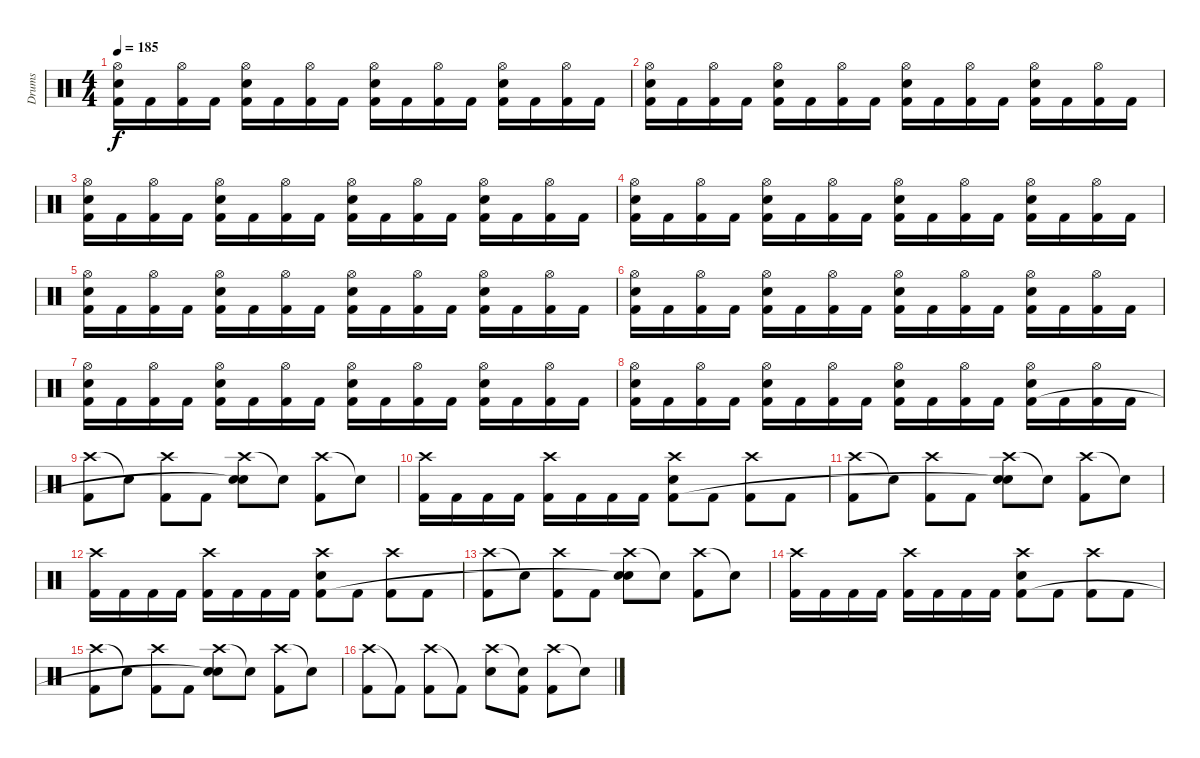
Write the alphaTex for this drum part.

\track ("Drums" "Drums") {instrument percussion}
\staff {score}
\articulation defaults
\ts (4 4)
\tempo 185
\clef neutral
\ks c
("Hi-Hat (open)" "Electric Snare (hit)" "Kick (hit) 2").16{dy f} "Kick (hit) 2".16 ("Hi-Hat (open)" "Kick (hit) 2").16 "Kick (hit) 2".16 ("Hi-Hat (open)" "Electric Snare (hit)" "Kick (hit) 2").16 "Kick (hit) 2".16 ("Hi-Hat (open)" "Kick (hit) 2").16 "Kick (hit) 2".16 ("Hi-Hat (open)" "Electric Snare (hit)" "Kick (hit) 2").16 "Kick (hit) 2".16 ("Hi-Hat (open)" "Kick (hit) 2").16 "Kick (hit) 2".16 ("Hi-Hat (open)" "Electric Snare (hit)" "Kick (hit) 2").16 "Kick (hit) 2".16 ("Hi-Hat (open)" "Kick (hit) 2").16 "Kick (hit) 2".16 |
("Hi-Hat (open)" "Electric Snare (hit)" "Kick (hit) 2").16 "Kick (hit) 2".16 ("Hi-Hat (open)" "Kick (hit) 2").16 "Kick (hit) 2".16 ("Hi-Hat (open)" "Electric Snare (hit)" "Kick (hit) 2").16 "Kick (hit) 2".16 ("Hi-Hat (open)" "Kick (hit) 2").16 "Kick (hit) 2".16 ("Hi-Hat (open)" "Electric Snare (hit)" "Kick (hit) 2").16 "Kick (hit) 2".16 ("Hi-Hat (open)" "Kick (hit) 2").16 "Kick (hit) 2".16 ("Hi-Hat (open)" "Electric Snare (hit)" "Kick (hit) 2").16 "Kick (hit) 2".16 ("Hi-Hat (open)" "Kick (hit) 2").16 "Kick (hit) 2".16 |
("Hi-Hat (open)" "Electric Snare (hit)" "Kick (hit) 2").16 "Kick (hit) 2".16 ("Hi-Hat (open)" "Kick (hit) 2").16 "Kick (hit) 2".16 ("Hi-Hat (open)" "Electric Snare (hit)" "Kick (hit) 2").16 "Kick (hit) 2".16 ("Hi-Hat (open)" "Kick (hit) 2").16 "Kick (hit) 2".16 ("Hi-Hat (open)" "Electric Snare (hit)" "Kick (hit) 2").16 "Kick (hit) 2".16 ("Hi-Hat (open)" "Kick (hit) 2").16 "Kick (hit) 2".16 ("Hi-Hat (open)" "Electric Snare (hit)" "Kick (hit) 2").16 "Kick (hit) 2".16 ("Hi-Hat (open)" "Kick (hit) 2").16 "Kick (hit) 2".16 |
("Hi-Hat (open)" "Electric Snare (hit)" "Kick (hit) 2").16 "Kick (hit) 2".16 ("Hi-Hat (open)" "Kick (hit) 2").16 "Kick (hit) 2".16 ("Hi-Hat (open)" "Electric Snare (hit)" "Kick (hit) 2").16 "Kick (hit) 2".16 ("Hi-Hat (open)" "Kick (hit) 2").16 "Kick (hit) 2".16 ("Hi-Hat (open)" "Electric Snare (hit)" "Kick (hit) 2").16 "Kick (hit) 2".16 ("Hi-Hat (open)" "Kick (hit) 2").16 "Kick (hit) 2".16 ("Hi-Hat (open)" "Electric Snare (hit)" "Kick (hit) 2").16 "Kick (hit) 2".16 ("Hi-Hat (open)" "Kick (hit) 2").16 "Kick (hit) 2".16 |
("Hi-Hat (open)" "Electric Snare (hit)" "Kick (hit) 2").16 "Kick (hit) 2".16 ("Hi-Hat (open)" "Kick (hit) 2").16 "Kick (hit) 2".16 ("Hi-Hat (open)" "Electric Snare (hit)" "Kick (hit) 2").16 "Kick (hit) 2".16 ("Hi-Hat (open)" "Kick (hit) 2").16 "Kick (hit) 2".16 ("Hi-Hat (open)" "Electric Snare (hit)" "Kick (hit) 2").16 "Kick (hit) 2".16 ("Hi-Hat (open)" "Kick (hit) 2").16 "Kick (hit) 2".16 ("Hi-Hat (open)" "Electric Snare (hit)" "Kick (hit) 2").16 "Kick (hit) 2".16 ("Hi-Hat (open)" "Kick (hit) 2").16 "Kick (hit) 2".16 |
("Hi-Hat (open)" "Electric Snare (hit)" "Kick (hit) 2").16 "Kick (hit) 2".16 ("Hi-Hat (open)" "Kick (hit) 2").16 "Kick (hit) 2".16 ("Hi-Hat (open)" "Electric Snare (hit)" "Kick (hit) 2").16 "Kick (hit) 2".16 ("Hi-Hat (open)" "Kick (hit) 2").16 "Kick (hit) 2".16 ("Hi-Hat (open)" "Electric Snare (hit)" "Kick (hit) 2").16 "Kick (hit) 2".16 ("Hi-Hat (open)" "Kick (hit) 2").16 "Kick (hit) 2".16 ("Hi-Hat (open)" "Electric Snare (hit)" "Kick (hit) 2").16 "Kick (hit) 2".16 ("Hi-Hat (open)" "Kick (hit) 2").16 "Kick (hit) 2".16 |
("Hi-Hat (open)" "Electric Snare (hit)" "Kick (hit) 2").16 "Kick (hit) 2".16 ("Hi-Hat (open)" "Kick (hit) 2").16 "Kick (hit) 2".16 ("Hi-Hat (open)" "Electric Snare (hit)" "Kick (hit) 2").16 "Kick (hit) 2".16 ("Hi-Hat (open)" "Kick (hit) 2").16 "Kick (hit) 2".16 ("Hi-Hat (open)" "Electric Snare (hit)" "Kick (hit) 2").16 "Kick (hit) 2".16 ("Hi-Hat (open)" "Kick (hit) 2").16 "Kick (hit) 2".16 ("Hi-Hat (open)" "Electric Snare (hit)" "Kick (hit) 2").16 "Kick (hit) 2".16 ("Hi-Hat (open)" "Kick (hit) 2").16 "Kick (hit) 2".16 |
("Hi-Hat (open)" "Electric Snare (hit)" "Kick (hit) 2").16 "Kick (hit) 2".16 ("Hi-Hat (open)" "Kick (hit) 2").16 "Kick (hit) 2".16 ("Hi-Hat (open)" "Electric Snare (hit)" "Kick (hit) 2").16 "Kick (hit) 2".16 ("Hi-Hat (open)" "Kick (hit) 2").16 "Kick (hit) 2".16 ("Hi-Hat (open)" "Electric Snare (hit)" "Kick (hit) 2").16 "Kick (hit) 2".16 ("Hi-Hat (open)" "Kick (hit) 2").16 "Kick (hit) 2".16 ("Hi-Hat (open)" "Electric Snare (hit)" "Kick (hit) 2").16 "Kick (hit) 2".16 ("Hi-Hat (open)" "Kick (hit) 2").16 "Kick (hit) 2".16 |
("Crash high (hit)" "Kick (hit) 2").8 "Snare (hit)"{t}.8 ("Crash high (hit)" "Kick (hit) 2").8 "Kick (hit) 2".8 ("Crash high (hit)" "Electric Snare (hit)" "Snare (hit)"{t}).8 "Electric Snare (hit)"{t}.8 ("Crash high (hit)" "Kick (hit) 2").8 "Snare (hit)"{t}.8 |
("Crash high (hit)" "Kick (hit) 2").16 "Kick (hit) 2".16 "Kick (hit) 2".16 "Kick (hit) 2".16 ("Crash high (hit)" "Kick (hit) 2").16 "Kick (hit) 2".16 "Kick (hit) 2".16 "Kick (hit) 2".16 ("Crash high (hit)" "Electric Snare (hit)" "Kick (hit) 2").8 "Kick (hit) 2".8 ("Crash high (hit)" "Kick (hit) 2").8 "Kick (hit) 2".8 |
("Crash high (hit)" "Kick (hit) 2").8 "Snare (hit)"{t}.8 ("Crash high (hit)" "Kick (hit) 2").8 "Kick (hit) 2".8 ("Crash high (hit)" "Electric Snare (hit)" "Snare (hit)"{t}).8 "Electric Snare (hit)"{t}.8 ("Crash high (hit)" "Kick (hit) 2").8 "Snare (hit)"{t}.8 |
("Crash high (hit)" "Kick (hit) 2").16 "Kick (hit) 2".16 "Kick (hit) 2".16 "Kick (hit) 2".16 ("Crash high (hit)" "Kick (hit) 2").16 "Kick (hit) 2".16 "Kick (hit) 2".16 "Kick (hit) 2".16 ("Crash high (hit)" "Electric Snare (hit)" "Kick (hit) 2").8 "Kick (hit) 2".8 ("Crash high (hit)" "Kick (hit) 2").8 "Kick (hit) 2".8 |
("Crash high (hit)" "Kick (hit) 2").8 "Snare (hit)"{t}.8 ("Crash high (hit)" "Kick (hit) 2").8 "Kick (hit) 2".8 ("Crash high (hit)" "Electric Snare (hit)" "Snare (hit)"{t}).8 "Electric Snare (hit)"{t}.8 ("Crash high (hit)" "Kick (hit) 2").8 "Snare (hit)"{t}.8 |
("Crash high (hit)" "Kick (hit) 2").16 "Kick (hit) 2".16 "Kick (hit) 2".16 "Kick (hit) 2".16 ("Crash high (hit)" "Kick (hit) 2").16 "Kick (hit) 2".16 "Kick (hit) 2".16 "Kick (hit) 2".16 ("Crash high (hit)" "Electric Snare (hit)" "Kick (hit) 2").8 "Kick (hit) 2".8 ("Crash high (hit)" "Kick (hit) 2").8 "Kick (hit) 2".8 |
("Crash high (hit)" "Kick (hit) 2").8 "Snare (hit)"{t}.8 ("Crash high (hit)" "Kick (hit) 2").8 "Kick (hit) 2".8 ("Crash high (hit)" "Electric Snare (hit)" "Snare (hit)"{t}).8 "Electric Snare (hit)"{t}.8 ("Crash high (hit)" "Kick (hit) 2").8 "Snare (hit)"{t}.8 |
("Crash high (hit)" "Kick (hit) 2").8 "Kick (hit) 2"{t}.8 ("Crash high (hit)" "Kick (hit) 2").8 "Kick (hit) 2"{t}.8 ("Crash high (hit)" "Electric Snare (hit)").8 ("Snare (hit)"{t} "Kick (hit) 2").8 ("Crash high (hit)" "Kick (hit) 2").8 "Snare (hit)"{t}.8
